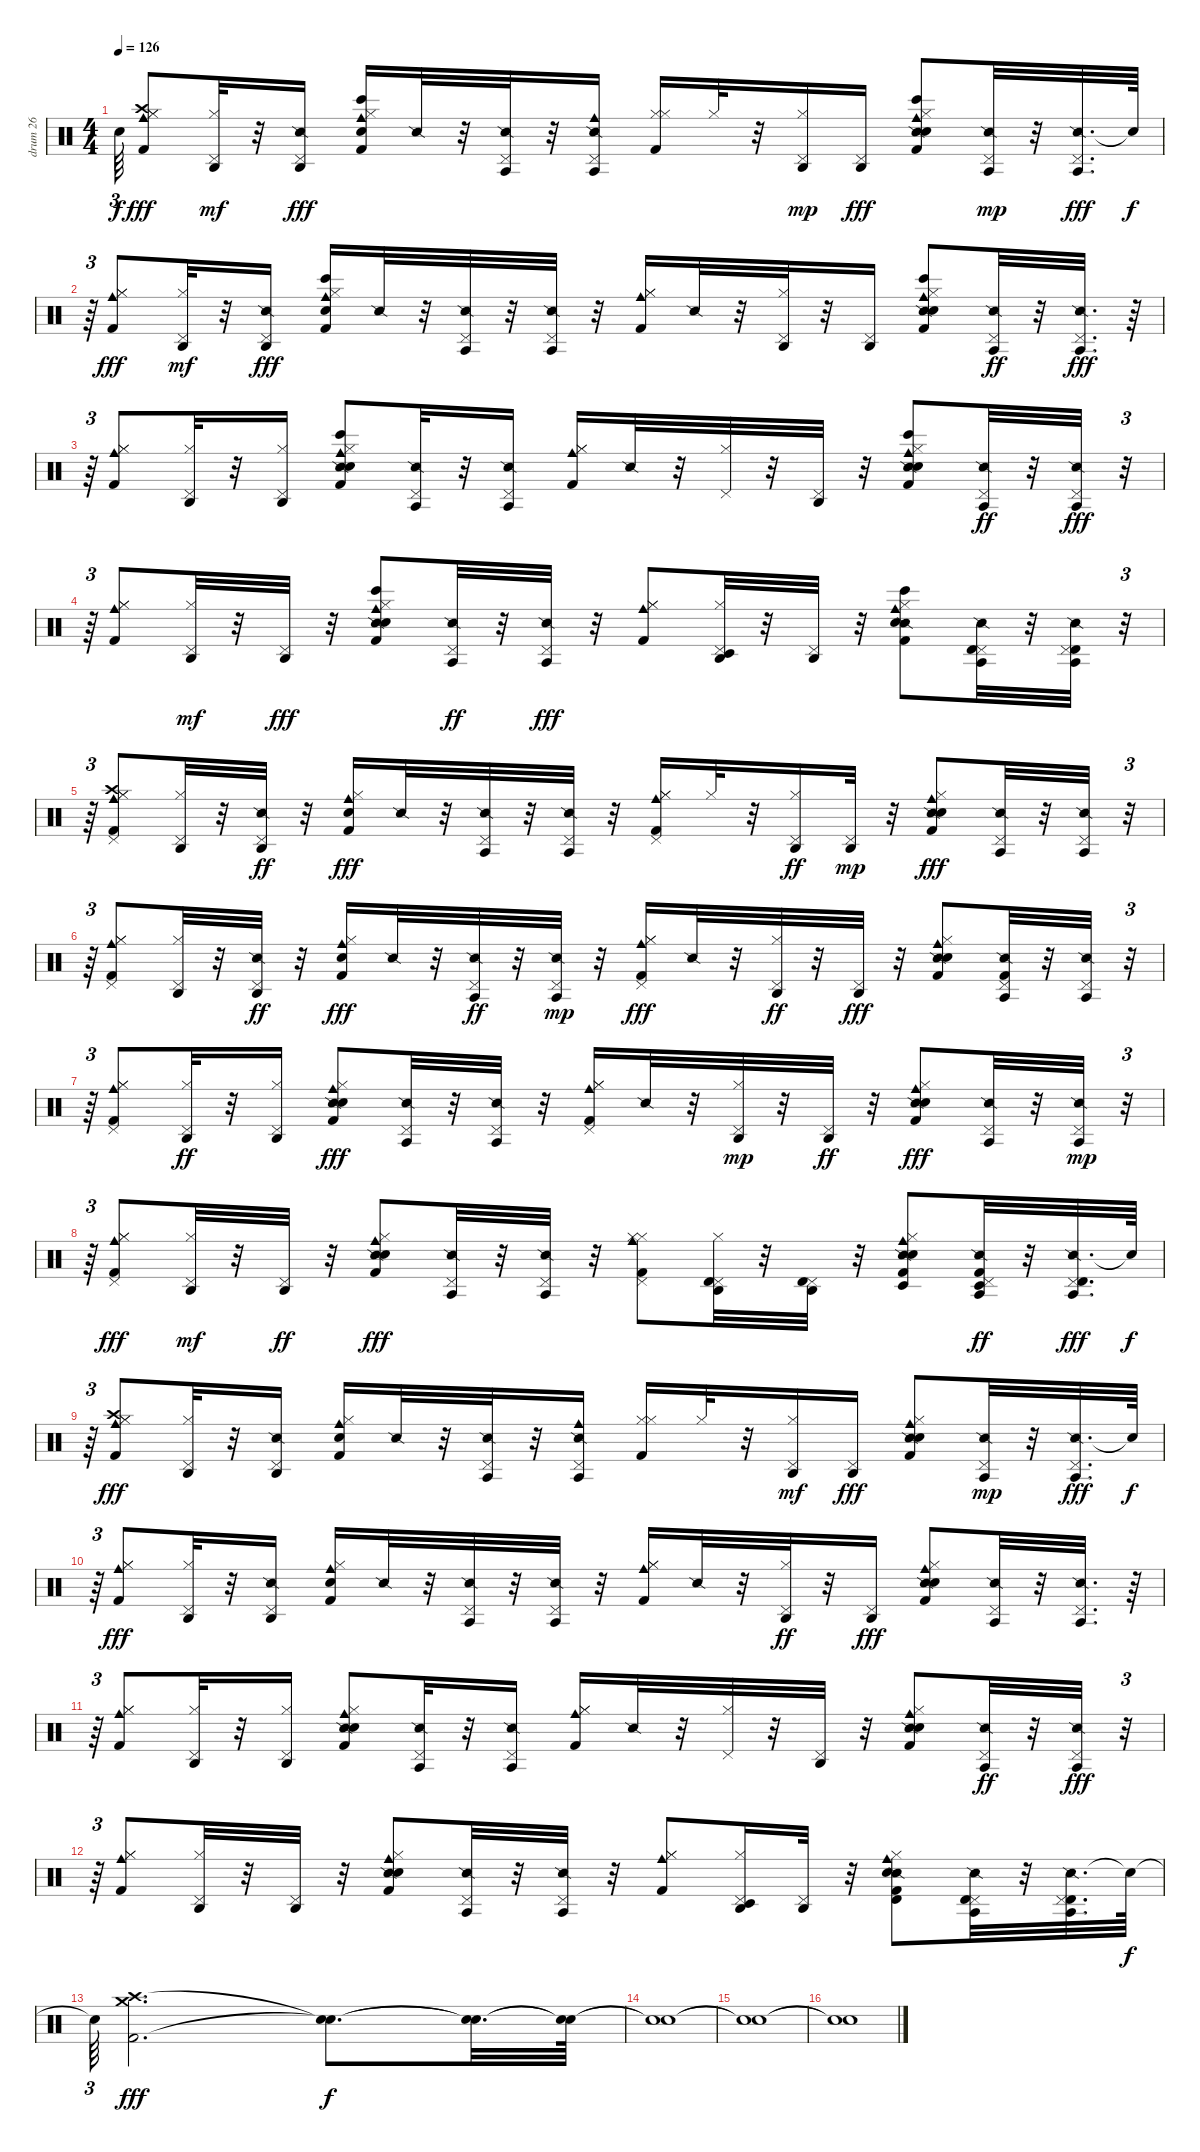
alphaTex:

\track ("drum 26" "drum 26") {instrument percussion}
\staff {score}
\articulation defaults
\ts (4 4)
\tempo 126
\clef neutral
\ks c "Snare (hit)"{t}.64{tu (3 2) dy f}
("Hi-Hat (closed)" "Kick (hit) 2" "Hi-Hat (closed)" "Crash high (hit)" "Cowbell medium (hit)").8{dy fff} ("Hi-Hat (closed)" "Pedal Hi-Hat (hit)" "Agogo high (hit)").32{dy mf} r.32 ("Snare (side stick) 2" "Agogo high (hit)" "Pedal Hi-Hat (hit)").16{dy fff} ("Bongo High (hit)" "Kick (hit) 2" "Hand Clap (hit)" "Hi-Hat (closed)" "Cowbell medium (hit)").16 "Snare (side stick) 2".32 r.32 ("Snare (side stick) 2" "Pedal Hi-Hat (hit)" "Agogo tow (hit)").32 r.32 ("Snare (side stick) 2" "Cowbell medium (hit)" "Agogo tow (hit)" "Pedal Hi-Hat (hit)").16 ("Hi-Hat (closed)" "Kick (hit) 2" "Hi-Hat (closed)").16 "Hi-Hat (closed)".32 r.32 ("Hi-Hat (closed)" "Pedal Hi-Hat (hit)" "Agogo high (hit)").16{dy mp} ("Agogo high (hit)" "Pedal Hi-Hat (hit)").16{dy fff} ("Bongo High (hit)" "Snare (side stick) 2" "Kick (hit) 2" "Hand Clap (hit)" "Hi-Hat (closed)" "Cowbell medium (hit)").8 ("Snare (side stick) 2" "Pedal Hi-Hat (hit)" "Agogo tow (hit)").32{dy mp} r.32 ("Snare (side stick) 2" "Agogo tow (hit)" "Pedal Hi-Hat (hit)").32{d dy fff} "Snare (hit)"{t}.64{dy f} |
r.64{tu (3 2)} ("Hi-Hat (closed)" "Kick (hit) 2" "Hi-Hat (closed)" "Cowbell medium (hit)").8{dy fff} ("Hi-Hat (closed)" "Pedal Hi-Hat (hit)" "Agogo high (hit)").32{dy mf} r.32 ("Snare (side stick) 2" "Agogo high (hit)" "Pedal Hi-Hat (hit)").16{dy fff} ("Bongo High (hit)" "Kick (hit) 2" "Hand Clap (hit)" "Hi-Hat (closed)" "Cowbell medium (hit)").16 "Snare (side stick) 2".32 r.32 ("Snare (side stick) 2" "Pedal Hi-Hat (hit)" "Agogo tow (hit)").32 r.32 ("Snare (side stick) 2" "Agogo tow (hit)" "Pedal Hi-Hat (hit)").32 r.32 ("Hi-Hat (closed)" "Kick (hit) 2" "Hi-Hat (closed)" "Cowbell medium (hit)").16 "Snare (side stick) 2".32 r.32 ("Hi-Hat (closed)" "Pedal Hi-Hat (hit)" "Agogo high (hit)").32 r.32 ("Agogo high (hit)" "Pedal Hi-Hat (hit)").16 ("Bongo High (hit)" "Snare (side stick) 2" "Kick (hit) 2" "Hand Clap (hit)" "Hi-Hat (closed)" "Cowbell medium (hit)").8 ("Snare (side stick) 2" "Pedal Hi-Hat (hit)" "Agogo tow (hit)").32{dy ff} r.32 ("Snare (side stick) 2" "Agogo tow (hit)" "Pedal Hi-Hat (hit)").32{d dy fff} r.64 |
r.64{tu (3 2)} ("Hi-Hat (closed)" "Kick (hit) 2" "Hi-Hat (closed)" "Cowbell medium (hit)").8 ("Hi-Hat (closed)" "Pedal Hi-Hat (hit)" "Agogo high (hit)").32 r.32 ("Hi-Hat (closed)" "Agogo high (hit)" "Pedal Hi-Hat (hit)").16 ("Bongo High (hit)" "Snare (side stick) 2" "Kick (hit) 2" "Hand Clap (hit)" "Hi-Hat (closed)" "Cowbell medium (hit)").8 ("Snare (side stick) 2" "Pedal Hi-Hat (hit)" "Agogo tow (hit)").32 r.32 ("Snare (side stick) 2" "Agogo tow (hit)" "Pedal Hi-Hat (hit)").16 ("Hi-Hat (closed)" "Kick (hit) 2" "Hi-Hat (closed)" "Cowbell medium (hit)").16 "Snare (side stick) 2".32 r.32 ("Hi-Hat (closed)" "Pedal Hi-Hat (hit)").32 r.32 ("Agogo high (hit)" "Pedal Hi-Hat (hit)").32 r.32 ("Bongo High (hit)" "Snare (side stick) 2" "Kick (hit) 2" "Hand Clap (hit)" "Hi-Hat (closed)" "Cowbell medium (hit)").8 ("Snare (side stick) 2" "Pedal Hi-Hat (hit)" "Agogo tow (hit)").32{dy ff} r.32 ("Snare (side stick) 2" "Agogo tow (hit)" "Pedal Hi-Hat (hit)").32{dy fff} r.32{tu (3 2)} |
r.64{tu (3 2)} ("Hi-Hat (closed)" "Kick (hit) 2" "Hi-Hat (closed)" "Cowbell medium (hit)").8 ("Hi-Hat (closed)" "Pedal Hi-Hat (hit)" "Agogo high (hit)").32{dy mf} r.32 ("Agogo high (hit)" "Pedal Hi-Hat (hit)").32{dy fff} r.32 ("Bongo High (hit)" "Snare (side stick) 2" "Kick (hit) 2" "Hand Clap (hit)" "Hi-Hat (closed)" "Cowbell medium (hit)").8 ("Snare (side stick) 2" "Pedal Hi-Hat (hit)" "Agogo tow (hit)").32{dy ff} r.32 ("Snare (side stick) 2" "Agogo tow (hit)" "Pedal Hi-Hat (hit)").32{dy fff} r.32 ("Hi-Hat (closed)" "Kick (hit) 2" "Hi-Hat (closed)" "Cowbell medium (hit)").8 ("Hi-Hat (closed)" "Pedal Hi-Hat (hit)" "Timbale low (hit)" "Agogo high (hit)").32 r.32 ("Agogo high (hit)" "Pedal Hi-Hat (hit)").32 r.32 ("Bongo High (hit)" "Snare (side stick) 2" "Kick (hit) 2" "Hand Clap (hit)" "Hi-Hat (closed)" "Cowbell medium (hit)").8 ("Snare (side stick) 2" "Pedal Hi-Hat (hit)" "Timbale high (hit)" "Agogo tow (hit)").32 r.32 ("Snare (side stick) 2" "Timbale high (hit)" "Agogo tow (hit)" "Pedal Hi-Hat (hit)").32 r.32{tu (3 2)} |
r.64{tu (3 2)} ("Hi-Hat (closed)" "Kick (hit) 2" "Hi-Hat (closed)" "Pedal Hi-Hat (hit)" "Crash high (hit)" "Cowbell medium (hit)").8 ("Hi-Hat (closed)" "Pedal Hi-Hat (hit)" "Agogo high (hit)").32 r.32 ("Snare (side stick) 2" "Pedal Hi-Hat (hit)" "Agogo high (hit)").32{dy ff} r.32 ("Kick (hit) 2" "Hand Clap (hit)" "Hi-Hat (closed)" "Cowbell medium (hit)").16{dy fff} "Snare (side stick) 2".32 r.32 ("Snare (side stick) 2" "Pedal Hi-Hat (hit)" "Agogo tow (hit)").32 r.32 ("Snare (side stick) 2" "Pedal Hi-Hat (hit)" "Agogo tow (hit)").32 r.32 ("Hi-Hat (closed)" "Kick (hit) 2" "Hi-Hat (closed)" "Pedal Hi-Hat (hit)" "Cowbell medium (hit)").16 "Hi-Hat (closed)".32 r.32 ("Hi-Hat (closed)" "Pedal Hi-Hat (hit)" "Agogo high (hit)").16{dy ff} ("Pedal Hi-Hat (hit)" "Agogo high (hit)").32{dy mp} r.32 ("Snare (side stick) 2" "Kick (hit) 2" "Hand Clap (hit)" "Hi-Hat (closed)" "Cowbell medium (hit)").8{dy fff} ("Snare (side stick) 2" "Pedal Hi-Hat (hit)" "Agogo tow (hit)").32 r.32 ("Snare (side stick) 2" "Pedal Hi-Hat (hit)" "Agogo tow (hit)").32 r.32{tu (3 2)} |
r.64{tu (3 2)} ("Hi-Hat (closed)" "Kick (hit) 2" "Hi-Hat (closed)" "Pedal Hi-Hat (hit)" "Cowbell medium (hit)").8 ("Hi-Hat (closed)" "Pedal Hi-Hat (hit)" "Agogo high (hit)").32 r.32 ("Snare (side stick) 2" "Pedal Hi-Hat (hit)" "Agogo high (hit)").32{dy ff} r.32 ("Kick (hit) 2" "Hand Clap (hit)" "Hi-Hat (closed)" "Cowbell medium (hit)").16{dy fff} "Snare (side stick) 2".32 r.32 ("Snare (side stick) 2" "Pedal Hi-Hat (hit)" "Agogo tow (hit)").32{dy ff} r.32 ("Snare (side stick) 2" "Pedal Hi-Hat (hit)" "Agogo tow (hit)").32{dy mp} r.32 ("Hi-Hat (closed)" "Kick (hit) 2" "Hi-Hat (closed)" "Pedal Hi-Hat (hit)" "Cowbell medium (hit)").16{dy fff} "Snare (side stick) 2".32 r.32 ("Hi-Hat (closed)" "Pedal Hi-Hat (hit)" "Agogo high (hit)").32{dy ff} r.32 ("Pedal Hi-Hat (hit)" "Agogo high (hit)").32{dy fff} r.32 ("Snare (side stick) 2" "Kick (hit) 2" "Hand Clap (hit)" "Hi-Hat (closed)" "Cowbell medium (hit)").8 ("Snare (side stick) 2" "Kick (hit) 2" "Pedal Hi-Hat (hit)" "Agogo tow (hit)").32 r.32 ("Snare (side stick) 2" "Pedal Hi-Hat (hit)" "Agogo tow (hit)").32 r.32{tu (3 2)} |
r.64{tu (3 2)} ("Hi-Hat (closed)" "Kick (hit) 2" "Hi-Hat (closed)" "Pedal Hi-Hat (hit)" "Cowbell medium (hit)").8 ("Hi-Hat (closed)" "Pedal Hi-Hat (hit)" "Agogo high (hit)").32{dy ff} r.32 ("Hi-Hat (closed)" "Pedal Hi-Hat (hit)" "Agogo high (hit)").16 ("Snare (side stick) 2" "Kick (hit) 2" "Hand Clap (hit)" "Hi-Hat (closed)" "Cowbell medium (hit)").8{dy fff} ("Snare (side stick) 2" "Pedal Hi-Hat (hit)" "Agogo tow (hit)").32 r.32 ("Snare (side stick) 2" "Pedal Hi-Hat (hit)" "Agogo tow (hit)").32 r.32 ("Hi-Hat (closed)" "Kick (hit) 2" "Hi-Hat (closed)" "Pedal Hi-Hat (hit)" "Cowbell medium (hit)").16 "Snare (side stick) 2".32 r.32 ("Hi-Hat (closed)" "Pedal Hi-Hat (hit)" "Agogo high (hit)").32{dy mp} r.32 ("Pedal Hi-Hat (hit)" "Agogo high (hit)").32{dy ff} r.32 ("Snare (side stick) 2" "Kick (hit) 2" "Hand Clap (hit)" "Hi-Hat (closed)" "Cowbell medium (hit)").8{dy fff} ("Snare (side stick) 2" "Pedal Hi-Hat (hit)" "Agogo tow (hit)").32 r.32 ("Snare (side stick) 2" "Pedal Hi-Hat (hit)" "Agogo tow (hit)").32{dy mp} r.32{tu (3 2)} |
r.64{tu (3 2)} ("Hi-Hat (closed)" "Kick (hit) 2" "Hi-Hat (closed)" "Pedal Hi-Hat (hit)" "Cowbell medium (hit)").8{dy fff} ("Hi-Hat (closed)" "Pedal Hi-Hat (hit)" "Agogo high (hit)").32{dy mf} r.32 ("Pedal Hi-Hat (hit)" "Agogo high (hit)").32{dy ff} r.32 ("Snare (side stick) 2" "Kick (hit) 2" "Hand Clap (hit)" "Hi-Hat (closed)" "Cowbell medium (hit)").8{dy fff} ("Snare (side stick) 2" "Pedal Hi-Hat (hit)" "Agogo tow (hit)").32 r.32 ("Snare (side stick) 2" "Pedal Hi-Hat (hit)" "Agogo tow (hit)").32 r.32 ("Hi-Hat (closed)" "Kick (hit) 2" "Hi-Hat (closed)" "Pedal Hi-Hat (hit)" "Cowbell medium (hit)").8 ("Hi-Hat (closed)" "Pedal Hi-Hat (hit)" "Timbale high (hit)" "Agogo high (hit)").32 r.32 ("Pedal Hi-Hat (hit)" "Timbale high (hit)" "Agogo high (hit)").32 r.32 ("Snare (side stick) 2" "Kick (hit) 2" "Hand Clap (hit)" "Hi-Hat (closed)" "Cowbell medium (hit)" "Timbale low (hit)").8 ("Snare (side stick) 2" "Kick (hit) 2" "Pedal Hi-Hat (hit)" "Timbale low (hit)" "Agogo tow (hit)").32{dy ff} r.32 ("Snare (side stick) 2" "Pedal Hi-Hat (hit)" "Timbale high (hit)" "Agogo tow (hit)").32{d dy fff} "Snare (hit)"{t}.64{dy f} |
r.64{tu (3 2)} ("Hi-Hat (closed)" "Kick (hit) 2" "Hi-Hat (closed)" "Crash high (hit)" "Cowbell medium (hit)").8{dy fff} ("Hi-Hat (closed)" "Pedal Hi-Hat (hit)" "Agogo high (hit)").32 r.32 ("Snare (side stick) 2" "Agogo high (hit)" "Pedal Hi-Hat (hit)").16{volume 12} ("Kick (hit) 2" "Hand Clap (hit)" "Hi-Hat (closed)" "Cowbell medium (hit)").16 "Snare (side stick) 2".32 r.32 ("Snare (side stick) 2" "Pedal Hi-Hat (hit)" "Agogo tow (hit)").32 r.32 ("Snare (side stick) 2" "Cowbell medium (hit)" "Agogo tow (hit)" "Pedal Hi-Hat (hit)").16 ("Hi-Hat (closed)" "Kick (hit) 2" "Hi-Hat (closed)").16 "Hi-Hat (closed)".32 r.32 ("Hi-Hat (closed)" "Pedal Hi-Hat (hit)" "Agogo high (hit)").16{dy mf} ("Agogo high (hit)" "Pedal Hi-Hat (hit)").16{dy fff} ("Snare (side stick) 2" "Kick (hit) 2" "Hand Clap (hit)" "Hi-Hat (closed)" "Cowbell medium (hit)").8 ("Snare (side stick) 2" "Pedal Hi-Hat (hit)" "Agogo tow (hit)").32{dy mp} r.32 ("Snare (side stick) 2" "Agogo tow (hit)" "Pedal Hi-Hat (hit)").32{d dy fff} "Snare (hit)"{t}.64{dy f} |
r.64{tu (3 2)} ("Hi-Hat (closed)" "Kick (hit) 2" "Hi-Hat (closed)" "Cowbell medium (hit)").8{dy fff} ("Hi-Hat (closed)" "Pedal Hi-Hat (hit)" "Agogo high (hit)").32 r.32 ("Snare (side stick) 2" "Agogo high (hit)" "Pedal Hi-Hat (hit)").16 ("Kick (hit) 2" "Hand Clap (hit)" "Hi-Hat (closed)" "Cowbell medium (hit)").16 "Snare (side stick) 2".32 r.32 ("Snare (side stick) 2" "Pedal Hi-Hat (hit)" "Agogo tow (hit)").32 r.32 ("Snare (side stick) 2" "Agogo tow (hit)" "Pedal Hi-Hat (hit)").32 r.32 ("Hi-Hat (closed)" "Kick (hit) 2" "Hi-Hat (closed)" "Cowbell medium (hit)").16 "Snare (side stick) 2".32 r.32 ("Hi-Hat (closed)" "Pedal Hi-Hat (hit)" "Agogo high (hit)").32{dy ff} r.32 ("Agogo high (hit)" "Pedal Hi-Hat (hit)").16{dy fff} ("Snare (side stick) 2" "Kick (hit) 2" "Hand Clap (hit)" "Hi-Hat (closed)" "Cowbell medium (hit)").8 ("Snare (side stick) 2" "Pedal Hi-Hat (hit)" "Agogo tow (hit)").32 r.32 ("Snare (side stick) 2" "Agogo tow (hit)" "Pedal Hi-Hat (hit)").32{d} r.64 |
r.64{tu (3 2)} ("Hi-Hat (closed)" "Kick (hit) 2" "Hi-Hat (closed)" "Cowbell medium (hit)").8 ("Hi-Hat (closed)" "Pedal Hi-Hat (hit)" "Agogo high (hit)").32 r.32 ("Hi-Hat (closed)" "Agogo high (hit)" "Pedal Hi-Hat (hit)").16 ("Snare (side stick) 2" "Kick (hit) 2" "Hand Clap (hit)" "Hi-Hat (closed)" "Cowbell medium (hit)").8 ("Snare (side stick) 2" "Pedal Hi-Hat (hit)" "Agogo tow (hit)").32 r.32 ("Snare (side stick) 2" "Agogo tow (hit)" "Pedal Hi-Hat (hit)").16 ("Hi-Hat (closed)" "Kick (hit) 2" "Hi-Hat (closed)" "Cowbell medium (hit)").16 "Snare (side stick) 2".32 r.32 ("Hi-Hat (closed)" "Pedal Hi-Hat (hit)").32 r.32 ("Agogo high (hit)" "Pedal Hi-Hat (hit)").32 r.32 ("Snare (side stick) 2" "Kick (hit) 2" "Hand Clap (hit)" "Hi-Hat (closed)" "Cowbell medium (hit)").8 ("Snare (side stick) 2" "Pedal Hi-Hat (hit)" "Agogo tow (hit)").32{dy ff} r.32 ("Snare (side stick) 2" "Agogo tow (hit)" "Pedal Hi-Hat (hit)").32{dy fff} r.32{tu (3 2)} |
r.64{tu (3 2)} ("Hi-Hat (closed)" "Kick (hit) 2" "Hi-Hat (closed)" "Cowbell medium (hit)").8 ("Hi-Hat (closed)" "Pedal Hi-Hat (hit)" "Agogo high (hit)").32 r.32 ("Agogo high (hit)" "Pedal Hi-Hat (hit)").32 r.32 ("Snare (side stick) 2" "Kick (hit) 2" "Hand Clap (hit)" "Hi-Hat (closed)" "Cowbell medium (hit)").8 ("Snare (side stick) 2" "Pedal Hi-Hat (hit)" "Agogo tow (hit)").32 r.32 ("Snare (side stick) 2" "Agogo tow (hit)" "Pedal Hi-Hat (hit)").32 r.32 ("Hi-Hat (closed)" "Kick (hit) 2" "Hi-Hat (closed)" "Cowbell medium (hit)").8 ("Hi-Hat (closed)" "Pedal Hi-Hat (hit)" "Timbale low (hit)" "Agogo high (hit)").16 ("Agogo high (hit)" "Pedal Hi-Hat (hit)").32 r.32 ("Snare (side stick) 2" "Kick (hit) 2" "Hand Clap (hit)" "Hi-Hat (closed)" "Cowbell medium (hit)" "Timbale high (hit)").8 ("Snare (side stick) 2" "Pedal Hi-Hat (hit)" "Timbale high (hit)" "Agogo tow (hit)").32 r.32 ("Snare (side stick) 2" "Timbale high (hit)" "Agogo tow (hit)" "Pedal Hi-Hat (hit)").32{d} "Snare (hit)"{t}.64{dy f} |
"Snare (hit)"{t}.64{tu (3 2)} ("Kick (hit) 2" "Crash high (hit)" "Crash medium (hit)").2{d dy fff} ("Snare (hit)"{t} "Snare (hit)"{t}).8{d dy f} ("Snare (hit)"{t} "Snare (hit)"{t}).32{d} ("Snare (hit)"{t} "Snare (hit)"{t}).64 |
("Snare (hit)"{t} "Snare (hit)"{t}).1 |
("Snare (hit)"{t} "Snare (hit)"{t}).1 |
("Snare (hit)"{t} "Snare (hit)"{t}).1
